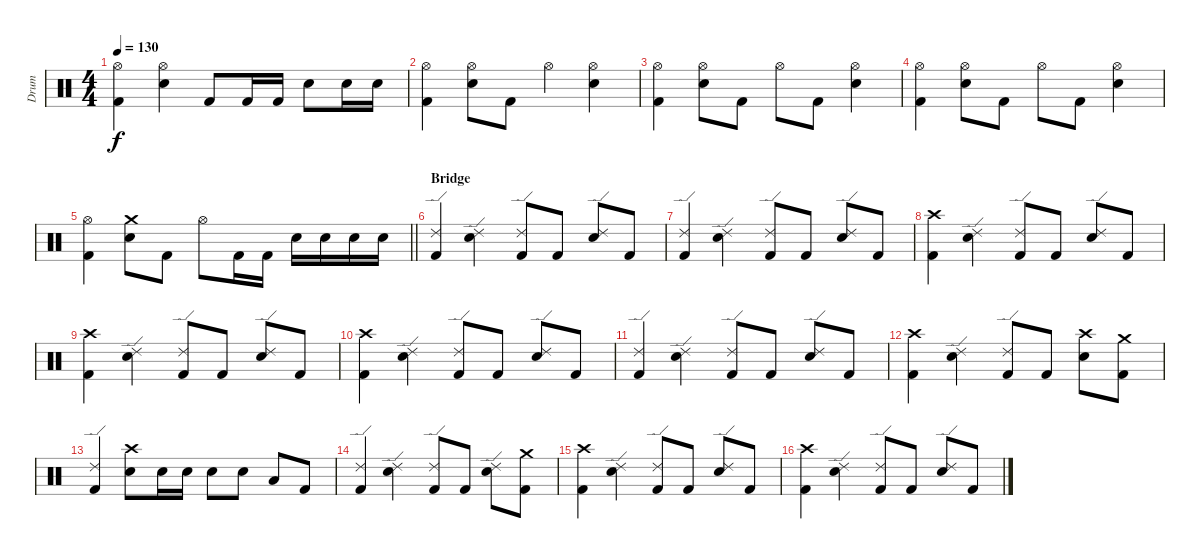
\track ("Drum" "Drum") {instrument percussion}
\staff {score}
\articulation defaults
\ts (4 4)
\tempo 130
\clef neutral
\ks c
("Hi-Hat (open)" "Kick (hit) 2").4{dy f} ("Hi-Hat (open)" "Electric Snare (hit)").4 "Kick (hit) 2".8 "Kick (hit) 2".16 "Kick (hit) 2".16 "Electric Snare (hit)".8 "Electric Snare (hit)".16 "Electric Snare (hit)".16 |
("Hi-Hat (open)" "Kick (hit) 2").4 ("Hi-Hat (open)" "Electric Snare (hit)").8 "Kick (hit) 2".8 "Hi-Hat (open)".4 ("Hi-Hat (open)" "Electric Snare (hit)").4 |
("Hi-Hat (open)" "Kick (hit) 2").4 ("Hi-Hat (open)" "Electric Snare (hit)").8 "Kick (hit) 2".8 "Hi-Hat (open)".8 "Kick (hit) 2".8 ("Hi-Hat (open)" "Electric Snare (hit)").4 |
("Hi-Hat (open)" "Kick (hit) 2").4 ("Hi-Hat (open)" "Electric Snare (hit)").8 "Kick (hit) 2".8 "Hi-Hat (open)".8 "Kick (hit) 2".8 ("Hi-Hat (open)" "Electric Snare (hit)").4 |
\barLineRight lightlight
("Hi-Hat (open)" "Kick (hit) 2").4 ("Crash medium (hit)" "Electric Snare (hit)").8 "Kick (hit) 2".8 "Hi-Hat (open)".8 "Kick (hit) 2".16 "Kick (hit) 2".16 "Electric Snare (hit)".16 "Electric Snare (hit)".16 "Electric Snare (hit)".16 "Electric Snare (hit)".16 |
\section ("" "Bridge ")
("Ride (edge) 2" "Kick (hit) 2").4 ("Ride (edge) 2" "Electric Snare (hit)").4 ("Ride (edge) 2" "Kick (hit) 2").8 "Kick (hit) 2".8 ("Ride (edge) 2" "Electric Snare (hit)").8 "Kick (hit) 2".8 |
("Ride (edge) 2" "Kick (hit) 2").4 ("Ride (edge) 2" "Electric Snare (hit)").4 ("Ride (edge) 2" "Kick (hit) 2").8 "Kick (hit) 2".8 ("Ride (edge) 2" "Electric Snare (hit)").8 "Kick (hit) 2".8 |
("Crash high (hit)" "Kick (hit) 2").4 ("Ride (edge) 2" "Electric Snare (hit)").4 ("Ride (edge) 2" "Kick (hit) 2").8 "Kick (hit) 2".8 ("Ride (edge) 2" "Electric Snare (hit)").8 "Kick (hit) 2".8 |
("Crash high (hit)" "Kick (hit) 2").4 ("Ride (edge) 2" "Electric Snare (hit)").4 ("Ride (edge) 2" "Kick (hit) 2").8 "Kick (hit) 2".8 ("Ride (edge) 2" "Electric Snare (hit)").8 "Kick (hit) 2".8 |
("Crash high (hit)" "Kick (hit) 2").4 ("Ride (edge) 2" "Electric Snare (hit)").4 ("Ride (edge) 2" "Kick (hit) 2").8 "Kick (hit) 2".8 ("Ride (edge) 2" "Electric Snare (hit)").8 "Kick (hit) 2".8 |
("Ride (edge) 2" "Kick (hit) 2").4 ("Ride (edge) 2" "Electric Snare (hit)").4 ("Ride (edge) 2" "Kick (hit) 2").8 "Kick (hit) 2".8 ("Ride (edge) 2" "Electric Snare (hit)").8 "Kick (hit) 2".8 |
("Crash high (hit)" "Kick (hit) 2").4 ("Ride (edge) 2" "Electric Snare (hit)").4 ("Ride (edge) 2" "Kick (hit) 2").8 "Kick (hit) 2".8 ("Crash high (hit)" "Electric Snare (hit)").8 ("Crash medium (hit)" "Kick (hit) 2").8 |
("Ride (edge) 2" "Kick (hit) 2").4 ("Crash high (hit)" "Electric Snare (hit)").8 "Electric Snare (hit)".16 "Electric Snare (hit)".16 "Electric Snare (hit)".8 "Electric Snare (hit)".8 "Low Tom (hit)".8 "Kick (hit) 2".8 |
("Ride (edge) 2" "Kick (hit) 2").4 ("Ride (edge) 2" "Electric Snare (hit)").4 ("Ride (edge) 2" "Kick (hit) 2").8 "Kick (hit) 2".8 ("Ride (edge) 2" "Electric Snare (hit)").8 ("Crash medium (hit)" "Kick (hit) 2").8 |
("Crash high (hit)" "Kick (hit) 2").4 ("Ride (edge) 2" "Electric Snare (hit)").4 ("Ride (edge) 2" "Kick (hit) 2").8 "Kick (hit) 2".8 ("Ride (edge) 2" "Electric Snare (hit)").8 "Kick (hit) 2".8 |
("Crash high (hit)" "Kick (hit) 2").4 ("Ride (edge) 2" "Electric Snare (hit)").4 ("Ride (edge) 2" "Kick (hit) 2").8 "Kick (hit) 2".8 ("Ride (edge) 2" "Electric Snare (hit)").8 "Kick (hit) 2".8
